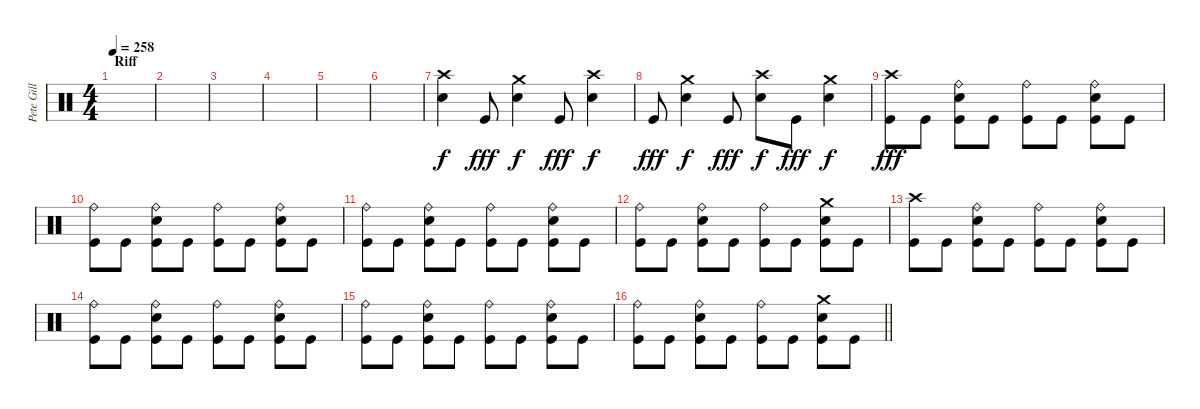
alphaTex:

\track ("Pete Gill" "Pete Gill") {instrument percussion}
\staff {score}
\articulation defaults
\ts (4 4)
\section ("" "Riff")
\tempo 258
\clef neutral
\ks c
|
|
|
|
|
|
("Crash high (hit)" "Electric Snare (hit)").4 "Kick (hit)".8{dy fff} ("Crash medium (hit)" "Electric Snare (hit)").4{dy f} "Kick (hit)".8{dy fff} ("Crash high (hit)" "Electric Snare (hit)").4{dy f} |
"Kick (hit)".8{dy fff} ("Crash medium (hit)" "Electric Snare (hit)").4{dy f} "Kick (hit)".8{dy fff} ("Crash high (hit)" "Electric Snare (hit)").8{dy f} "Kick (hit)".8{dy fff} ("Crash medium (hit)" "Electric Snare (hit)").4{dy f} |
("Crash high (hit)" "Kick (hit)").8{dy fff} "Kick (hit)".8 ("Ride (bell)" "Electric Snare (hit)" "Kick (hit)").8 "Kick (hit)".8 ("Ride (bell)" "Kick (hit)").8 "Kick (hit)".8 ("Ride (bell)" "Electric Snare (hit)" "Kick (hit)").8 "Kick (hit)".8 |
("Ride (bell)" "Kick (hit)").8 "Kick (hit)".8 ("Ride (bell)" "Electric Snare (hit)" "Kick (hit)").8 "Kick (hit)".8 ("Ride (bell)" "Kick (hit)").8 "Kick (hit)".8 ("Ride (bell)" "Electric Snare (hit)" "Kick (hit)").8 "Kick (hit)".8 |
("Ride (bell)" "Kick (hit)").8 "Kick (hit)".8 ("Ride (bell)" "Electric Snare (hit)" "Kick (hit)").8 "Kick (hit)".8 ("Ride (bell)" "Kick (hit)").8 "Kick (hit)".8 ("Ride (bell)" "Electric Snare (hit)" "Kick (hit)").8 "Kick (hit)".8 |
("Ride (bell)" "Kick (hit)").8 "Kick (hit)".8 ("Ride (bell)" "Electric Snare (hit)" "Kick (hit)").8 "Kick (hit)".8 ("Ride (bell)" "Kick (hit)").8 "Kick (hit)".8 ("Crash medium (hit)" "Electric Snare (hit)" "Kick (hit)").8 "Kick (hit)".8 |
("Crash high (hit)" "Kick (hit)").8 "Kick (hit)".8 ("Ride (bell)" "Electric Snare (hit)" "Kick (hit)").8 "Kick (hit)".8 ("Ride (bell)" "Kick (hit)").8 "Kick (hit)".8 ("Ride (bell)" "Electric Snare (hit)" "Kick (hit)").8 "Kick (hit)".8 |
("Ride (bell)" "Kick (hit)").8 "Kick (hit)".8 ("Ride (bell)" "Electric Snare (hit)" "Kick (hit)").8 "Kick (hit)".8 ("Ride (bell)" "Kick (hit)").8 "Kick (hit)".8 ("Ride (bell)" "Electric Snare (hit)" "Kick (hit)").8 "Kick (hit)".8 |
("Ride (bell)" "Kick (hit)").8 "Kick (hit)".8 ("Ride (bell)" "Electric Snare (hit)" "Kick (hit)").8 "Kick (hit)".8 ("Ride (bell)" "Kick (hit)").8 "Kick (hit)".8 ("Ride (bell)" "Electric Snare (hit)" "Kick (hit)").8 "Kick (hit)".8 |
\barLineRight lightlight
("Ride (bell)" "Kick (hit)").8 "Kick (hit)".8 ("Ride (bell)" "Electric Snare (hit)" "Kick (hit)").8 "Kick (hit)".8 ("Ride (bell)" "Kick (hit)").8 "Kick (hit)".8 ("Crash medium (hit)" "Electric Snare (hit)" "Kick (hit)").8 "Kick (hit)".8
